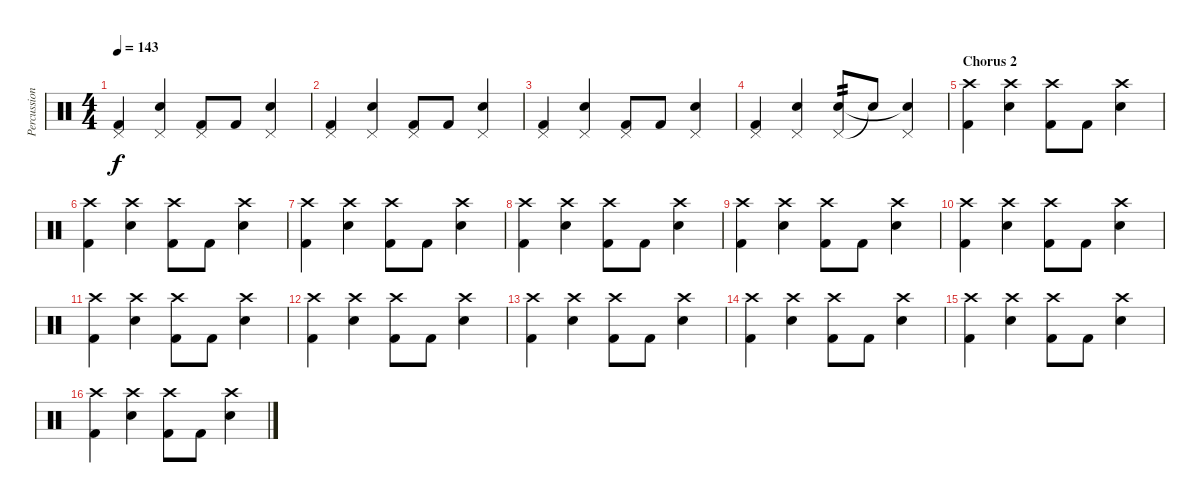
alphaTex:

\track ("Percussion" "Percussion") {instrument percussion}
\staff {score}
\articulation defaults
\ts (4 4)
\tempo 143
\clef neutral
\ks c
("Pedal Hi-Hat (hit)" "Kick (hit) 2").4{dy f} ("Pedal Hi-Hat (hit)" "Electric Snare (hit)").4 ("Pedal Hi-Hat (hit)" "Kick (hit) 2").8 "Kick (hit) 2".8 ("Pedal Hi-Hat (hit)" "Electric Snare (hit)").4 |
("Pedal Hi-Hat (hit)" "Kick (hit) 2").4 ("Pedal Hi-Hat (hit)" "Electric Snare (hit)").4 ("Pedal Hi-Hat (hit)" "Kick (hit) 2").8 "Kick (hit) 2".8 ("Pedal Hi-Hat (hit)" "Electric Snare (hit)").4 |
("Pedal Hi-Hat (hit)" "Kick (hit) 2").4 ("Pedal Hi-Hat (hit)" "Electric Snare (hit)").4 ("Pedal Hi-Hat (hit)" "Kick (hit) 2").8 "Kick (hit) 2".8 ("Pedal Hi-Hat (hit)" "Electric Snare (hit)").4 |
("Pedal Hi-Hat (hit)" "Kick (hit) 2").4 ("Pedal Hi-Hat (hit)" "Electric Snare (hit)").4 ("Pedal Hi-Hat (hit)" "Electric Snare (hit)").8{tp 2} "Snare (hit)"{t}.8 ("Pedal Hi-Hat (hit)" "Snare (hit)"{t}).4 |
\section ("" "Chorus 2")
("Crash high (hit)" "Kick (hit) 2").4 ("Crash high (hit)" "Electric Snare (hit)").4 ("Crash high (hit)" "Kick (hit) 2").8 "Kick (hit) 2".8 ("Crash high (hit)" "Electric Snare (hit)").4 |
("Crash high (hit)" "Kick (hit) 2").4 ("Crash high (hit)" "Electric Snare (hit)").4 ("Crash high (hit)" "Kick (hit) 2").8 "Kick (hit) 2".8 ("Crash high (hit)" "Electric Snare (hit)").4 |
("Crash high (hit)" "Kick (hit) 2").4 ("Crash high (hit)" "Electric Snare (hit)").4 ("Crash high (hit)" "Kick (hit) 2").8 "Kick (hit) 2".8 ("Crash high (hit)" "Electric Snare (hit)").4 |
("Crash high (hit)" "Kick (hit) 2").4 ("Crash high (hit)" "Electric Snare (hit)").4 ("Crash high (hit)" "Kick (hit) 2").8 "Kick (hit) 2".8 ("Crash high (hit)" "Electric Snare (hit)").4 |
("Crash high (hit)" "Kick (hit) 2").4 ("Crash high (hit)" "Electric Snare (hit)").4 ("Crash high (hit)" "Kick (hit) 2").8 "Kick (hit) 2".8 ("Crash high (hit)" "Electric Snare (hit)").4 |
("Crash high (hit)" "Kick (hit) 2").4 ("Crash high (hit)" "Electric Snare (hit)").4 ("Crash high (hit)" "Kick (hit) 2").8 "Kick (hit) 2".8 ("Crash high (hit)" "Electric Snare (hit)").4 |
("Crash high (hit)" "Kick (hit) 2").4 ("Crash high (hit)" "Electric Snare (hit)").4 ("Crash high (hit)" "Kick (hit) 2").8 "Kick (hit) 2".8 ("Crash high (hit)" "Electric Snare (hit)").4 |
("Crash high (hit)" "Kick (hit) 2").4 ("Crash high (hit)" "Electric Snare (hit)").4 ("Crash high (hit)" "Kick (hit) 2").8 "Kick (hit) 2".8 ("Crash high (hit)" "Electric Snare (hit)").4 |
("Crash high (hit)" "Kick (hit) 2").4 ("Crash high (hit)" "Electric Snare (hit)").4 ("Crash high (hit)" "Kick (hit) 2").8 "Kick (hit) 2".8 ("Crash high (hit)" "Electric Snare (hit)").4 |
("Crash high (hit)" "Kick (hit) 2").4 ("Crash high (hit)" "Electric Snare (hit)").4 ("Crash high (hit)" "Kick (hit) 2").8 "Kick (hit) 2".8 ("Crash high (hit)" "Electric Snare (hit)").4 |
("Crash high (hit)" "Kick (hit) 2").4 ("Crash high (hit)" "Electric Snare (hit)").4 ("Crash high (hit)" "Kick (hit) 2").8 "Kick (hit) 2".8 ("Crash high (hit)" "Electric Snare (hit)").4 |
("Crash high (hit)" "Kick (hit) 2").4 ("Crash high (hit)" "Electric Snare (hit)").4 ("Crash high (hit)" "Kick (hit) 2").8 "Kick (hit) 2".8 ("Crash high (hit)" "Electric Snare (hit)").4
